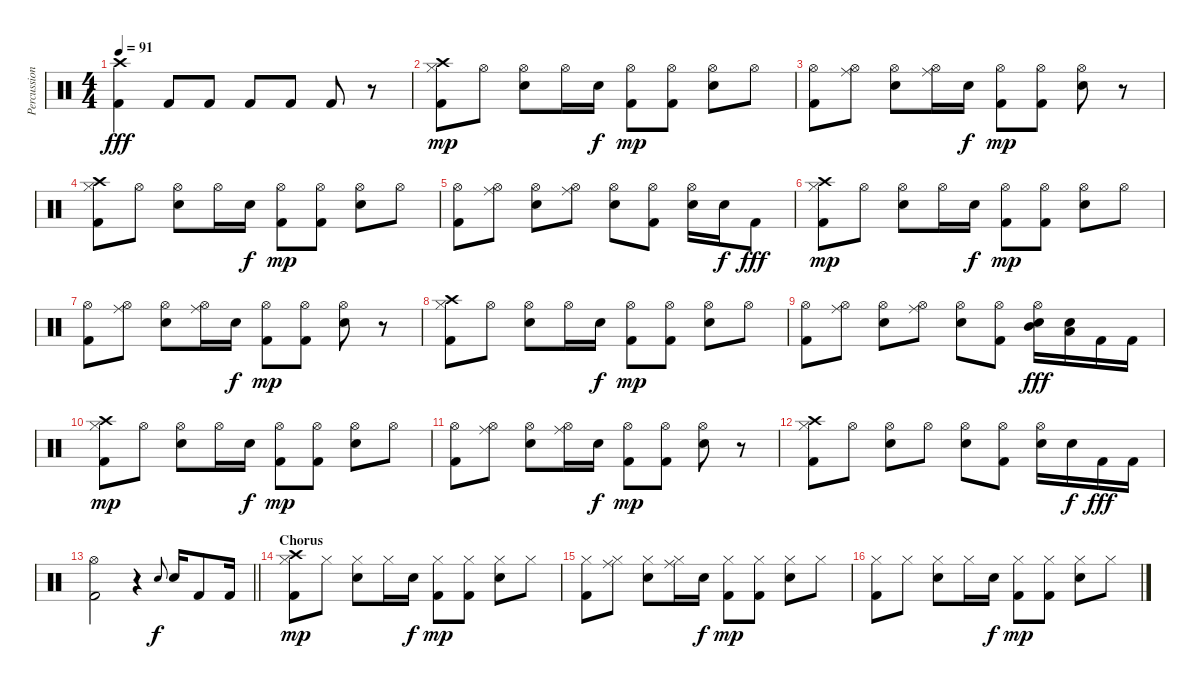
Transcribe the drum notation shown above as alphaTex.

\track ("Percussion" "Percussion") {instrument percussion}
\staff {score}
\articulation defaults
\ts (4 4)
\tempo 91
\clef neutral
\ks c
("Kick (hit) 2" "Crash high (hit)").4{dy fff} "Kick (hit) 2".8 "Kick (hit) 2".8 "Kick (hit) 2".8 "Kick (hit) 2".8 "Kick (hit) 2".8 r.8 |
("Kick (hit) 2" "Hi-Hat (closed)" "Crash high (hit)").8{dy mp} "Hi-Hat (open)".8 ("Electric Snare (hit)" "Hi-Hat (open)").8 "Hi-Hat (open)".16 "Electric Snare (hit)".16{dy f} ("Kick (hit) 2" "Hi-Hat (open)").8{dy mp} ("Kick (hit) 2" "Hi-Hat (open)").8 ("Electric Snare (hit)" "Hi-Hat (open)").8 "Hi-Hat (open)".8 |
("Kick (hit) 2" "Hi-Hat (open)").8 ("Ride (middle)" "Hi-Hat (open)").8 ("Electric Snare (hit)" "Hi-Hat (open)").8 ("Ride (middle)" "Hi-Hat (open)").16 "Electric Snare (hit)".16{dy f} ("Kick (hit) 2" "Hi-Hat (open)").8{dy mp} ("Kick (hit) 2" "Hi-Hat (open)").8 ("Electric Snare (hit)" "Hi-Hat (open)").8 r.8 |
("Kick (hit) 2" "Hi-Hat (closed)" "Crash high (hit)").8 "Hi-Hat (open)".8 ("Electric Snare (hit)" "Hi-Hat (open)").8 "Hi-Hat (open)".16 "Electric Snare (hit)".16{dy f} ("Kick (hit) 2" "Hi-Hat (open)").8{dy mp} ("Kick (hit) 2" "Hi-Hat (open)").8 ("Electric Snare (hit)" "Hi-Hat (open)").8 "Hi-Hat (open)".8 |
("Kick (hit) 2" "Hi-Hat (open)").8 ("Ride (middle)" "Hi-Hat (open)").8 ("Electric Snare (hit)" "Hi-Hat (open)").8 ("Ride (middle)" "Hi-Hat (open)").8 ("Electric Snare (hit)" "Hi-Hat (open)").8 ("Kick (hit) 2" "Hi-Hat (open)").8 ("Electric Snare (hit)" "Hi-Hat (open)").16 "Electric Snare (hit)".16{dy f} "Kick (hit) 2".8{dy fff} |
("Kick (hit) 2" "Hi-Hat (closed)" "Crash high (hit)").8{dy mp} "Hi-Hat (open)".8 ("Electric Snare (hit)" "Hi-Hat (open)").8 "Hi-Hat (open)".16 "Electric Snare (hit)".16{dy f} ("Kick (hit) 2" "Hi-Hat (open)").8{dy mp} ("Kick (hit) 2" "Hi-Hat (open)").8 ("Electric Snare (hit)" "Hi-Hat (open)").8 "Hi-Hat (open)".8 |
("Kick (hit) 2" "Hi-Hat (open)").8 ("Ride (middle)" "Hi-Hat (open)").8 ("Electric Snare (hit)" "Hi-Hat (open)").8 ("Ride (middle)" "Hi-Hat (open)").16 "Electric Snare (hit)".16{dy f} ("Kick (hit) 2" "Hi-Hat (open)").8{dy mp} ("Kick (hit) 2" "Hi-Hat (open)").8 ("Electric Snare (hit)" "Hi-Hat (open)").8 r.8 |
("Kick (hit) 2" "Hi-Hat (closed)" "Crash high (hit)").8 "Hi-Hat (open)".8 ("Electric Snare (hit)" "Hi-Hat (open)").8 "Hi-Hat (open)".16 "Electric Snare (hit)".16{dy f} ("Kick (hit) 2" "Hi-Hat (open)").8{dy mp} ("Kick (hit) 2" "Hi-Hat (open)").8 ("Electric Snare (hit)" "Hi-Hat (open)").8 "Hi-Hat (open)".8 |
("Kick (hit) 2" "Hi-Hat (open)").8 ("Ride (middle)" "Hi-Hat (open)").8 ("Electric Snare (hit)" "Hi-Hat (open)").8 ("Ride (middle)" "Hi-Hat (open)").8 ("Electric Snare (hit)" "Hi-Hat (open)").8 ("Kick (hit) 2" "Hi-Hat (open)").8 ("Electric Snare (hit)" "Hi-Hat (open)" "Mid Tom (hit)").16{dy fff} ("Electric Snare (hit)" "Low Tom (hit)").16 "Kick (hit) 2".16 "Kick (hit) 2".16 |
("Kick (hit) 2" "Hi-Hat (closed)" "Crash high (hit)").8{dy mp} "Hi-Hat (open)".8 ("Electric Snare (hit)" "Hi-Hat (open)").8 "Hi-Hat (open)".16 "Electric Snare (hit)".16{dy f} ("Kick (hit) 2" "Hi-Hat (open)").8{dy mp} ("Kick (hit) 2" "Hi-Hat (open)").8 ("Electric Snare (hit)" "Hi-Hat (open)").8 "Hi-Hat (open)".8 |
("Kick (hit) 2" "Hi-Hat (open)").8 ("Ride (middle)" "Hi-Hat (open)").8 ("Electric Snare (hit)" "Hi-Hat (open)").8 ("Ride (middle)" "Hi-Hat (open)").16 "Electric Snare (hit)".16{dy f} ("Kick (hit) 2" "Hi-Hat (open)").8{dy mp} ("Kick (hit) 2" "Hi-Hat (open)").8 ("Electric Snare (hit)" "Hi-Hat (open)").8 r.8 |
("Kick (hit) 2" "Hi-Hat (closed)" "Crash high (hit)").8 "Hi-Hat (open)".8 ("Electric Snare (hit)" "Hi-Hat (open)").8 "Hi-Hat (open)".8 ("Electric Snare (hit)" "Hi-Hat (open)").8 ("Kick (hit) 2" "Hi-Hat (open)").8 ("Electric Snare (hit)" "Hi-Hat (open)").16 "Electric Snare (hit)".16{dy f} "Kick (hit) 2".16{dy fff} "Kick (hit) 2".16 |
\barLineRight lightlight
("Kick (hit) 2" "Hi-Hat (open)").2 r.4 "Electric Snare (hit)".8{gr onbeat dy f} "Electric Snare (hit)".16 "Kick (hit) 2".8 "Kick (hit) 2".16 |
\section ("" "Chorus")
("Kick (hit) 2" "Hi-Hat (closed)" "Crash high (hit)").8{dy mp} "Hi-Hat (closed)".8 ("Electric Snare (hit)" "Hi-Hat (closed)").8 "Hi-Hat (closed)".16 "Electric Snare (hit)".16{dy f} ("Kick (hit) 2" "Hi-Hat (closed)").8{dy mp} ("Kick (hit) 2" "Hi-Hat (closed)").8 ("Electric Snare (hit)" "Hi-Hat (closed)").8 "Hi-Hat (closed)".8 |
("Kick (hit) 2" "Hi-Hat (closed)").8 ("Ride (middle)" "Hi-Hat (closed)").8 ("Electric Snare (hit)" "Hi-Hat (closed)").8 ("Ride (middle)" "Hi-Hat (closed)").16 "Electric Snare (hit)".16{dy f} ("Kick (hit) 2" "Hi-Hat (closed)").8{dy mp} ("Kick (hit) 2" "Hi-Hat (closed)").8 ("Electric Snare (hit)" "Hi-Hat (closed)").8 "Hi-Hat (closed)".8 |
("Kick (hit) 2" "Hi-Hat (closed)").8 "Hi-Hat (closed)".8 ("Electric Snare (hit)" "Hi-Hat (closed)").8 "Hi-Hat (closed)".16 "Electric Snare (hit)".16{dy f} ("Kick (hit) 2" "Hi-Hat (closed)").8{dy mp} ("Kick (hit) 2" "Hi-Hat (closed)").8 ("Electric Snare (hit)" "Hi-Hat (closed)").8 "Hi-Hat (closed)".8
